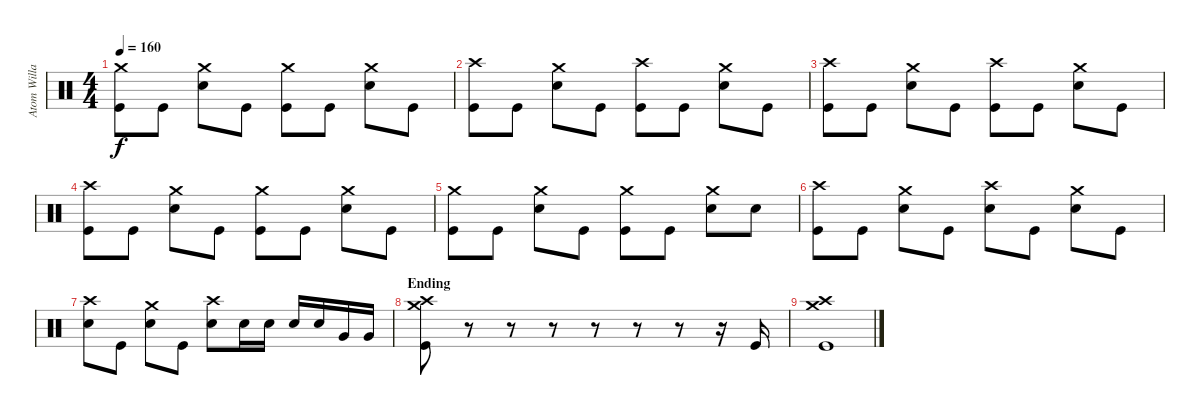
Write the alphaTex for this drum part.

\track ("Atom Willard - Drums" "Atom Willa") {instrument percussion}
\staff {score}
\articulation defaults
\ts (4 4)
\tempo 160
\clef neutral
\ks c
("Crash medium (hit)" "Kick (hit)").8{dy f} "Kick (hit)".8 ("Crash medium (hit)" "Electric Snare (hit)").8 "Kick (hit)".8 ("Crash medium (hit)" "Kick (hit)").8 "Kick (hit)".8 ("Crash medium (hit)" "Electric Snare (hit)").8 "Kick (hit)".8 |
("Crash high (hit)" "Kick (hit)").8 "Kick (hit)".8 ("Crash medium (hit)" "Electric Snare (hit)").8 "Kick (hit)".8 ("Crash high (hit)" "Kick (hit)").8 "Kick (hit)".8 ("Crash medium (hit)" "Electric Snare (hit)").8 "Kick (hit)".8 |
("Crash high (hit)" "Kick (hit)").8 "Kick (hit)".8 ("Crash medium (hit)" "Electric Snare (hit)").8 "Kick (hit)".8 ("Crash high (hit)" "Kick (hit)").8 "Kick (hit)".8 ("Crash medium (hit)" "Electric Snare (hit)").8 "Kick (hit)".8 |
("Crash high (hit)" "Kick (hit)").8 "Kick (hit)".8 ("Crash medium (hit)" "Electric Snare (hit)").8 "Kick (hit)".8 ("Crash medium (hit)" "Kick (hit)").8 "Kick (hit)".8 ("Crash medium (hit)" "Electric Snare (hit)").8 "Kick (hit)".8 |
("Crash medium (hit)" "Kick (hit)").8 "Kick (hit)".8 ("Crash medium (hit)" "Electric Snare (hit)").8 "Kick (hit)".8 ("Crash medium (hit)" "Kick (hit)").8 "Kick (hit)".8 ("Crash medium (hit)" "Electric Snare (hit)").8 "Electric Snare (hit)".8 |
("Crash high (hit)" "Kick (hit)").8 "Kick (hit)".8 ("Crash medium (hit)" "Electric Snare (hit)").8 "Kick (hit)".8 ("Crash high (hit)" "Electric Snare (hit)").8 "Kick (hit)".8 ("Crash medium (hit)" "Electric Snare (hit)").8 "Kick (hit)".8 |
("Crash high (hit)" "Electric Snare (hit)").8 "Kick (hit)".8 ("Crash medium (hit)" "Electric Snare (hit)").8 "Kick (hit)".8 ("Crash high (hit)" "Electric Snare (hit)").8 "Electric Snare (hit)".16 "Electric Snare (hit)".16 "Electric Snare (hit)".16 "Electric Snare (hit)".16 "Very Low Tom (hit)".16 "Very Low Tom (hit)".16 |
\section ("" "Ending")
("Crash medium (hit)" "Crash high (hit)" "Kick (hit)").8 r.8 r.8 r.8 r.8 r.8 r.8 r.16 "Kick (hit)".16 |
("Crash high (hit)" "Crash medium (hit)" "Kick (hit)").1
